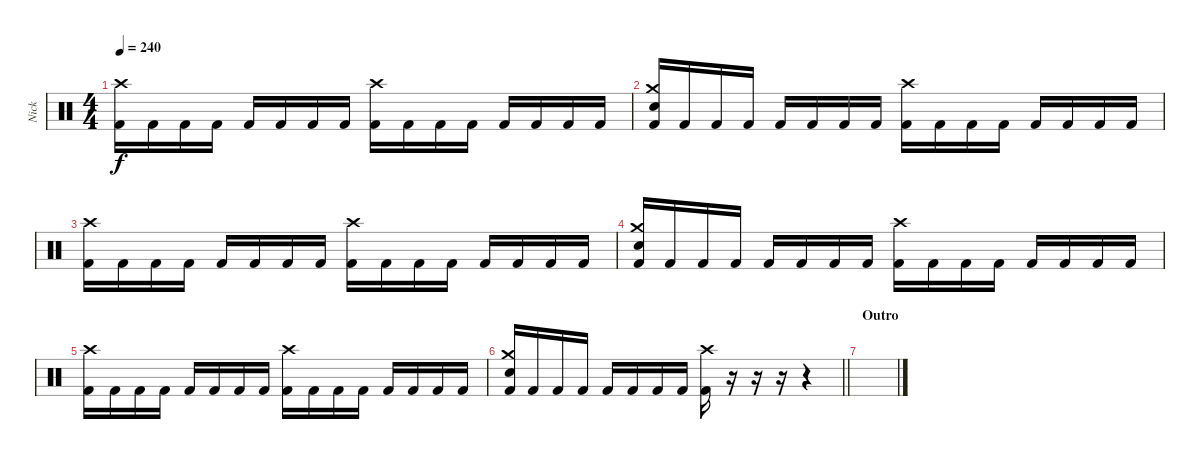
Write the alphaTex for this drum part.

\track ("Nick" "Nick") {instrument percussion}
\staff {score}
\articulation defaults
\ts (4 4)
\tempo 240
\clef neutral
\ks c
("Crash high (hit)" "Kick (hit) 2").16{dy f} "Kick (hit) 2".16 "Kick (hit) 2".16 "Kick (hit) 2".16 "Kick (hit) 2".16 "Kick (hit) 2".16 "Kick (hit) 2".16 "Kick (hit) 2".16 ("Crash high (hit)" "Kick (hit) 2").16 "Kick (hit) 2".16 "Kick (hit) 2".16 "Kick (hit) 2".16 "Kick (hit) 2".16 "Kick (hit) 2".16 "Kick (hit) 2".16 "Kick (hit) 2".16 |
("Crash medium (hit)" "Electric Snare (hit)" "Kick (hit) 2").16 "Kick (hit) 2".16 "Kick (hit) 2".16 "Kick (hit) 2".16 "Kick (hit) 2".16 "Kick (hit) 2".16 "Kick (hit) 2".16 "Kick (hit) 2".16 ("Crash high (hit)" "Kick (hit) 2").16 "Kick (hit) 2".16 "Kick (hit) 2".16 "Kick (hit) 2".16 "Kick (hit) 2".16 "Kick (hit) 2".16 "Kick (hit) 2".16 "Kick (hit) 2".16 |
("Crash high (hit)" "Kick (hit) 2").16 "Kick (hit) 2".16 "Kick (hit) 2".16 "Kick (hit) 2".16 "Kick (hit) 2".16 "Kick (hit) 2".16 "Kick (hit) 2".16 "Kick (hit) 2".16 ("Crash high (hit)" "Kick (hit) 2").16 "Kick (hit) 2".16 "Kick (hit) 2".16 "Kick (hit) 2".16 "Kick (hit) 2".16 "Kick (hit) 2".16 "Kick (hit) 2".16 "Kick (hit) 2".16 |
("Crash medium (hit)" "Electric Snare (hit)" "Kick (hit) 2").16 "Kick (hit) 2".16 "Kick (hit) 2".16 "Kick (hit) 2".16 "Kick (hit) 2".16 "Kick (hit) 2".16 "Kick (hit) 2".16 "Kick (hit) 2".16 ("Crash high (hit)" "Kick (hit) 2").16 "Kick (hit) 2".16 "Kick (hit) 2".16 "Kick (hit) 2".16 "Kick (hit) 2".16 "Kick (hit) 2".16 "Kick (hit) 2".16 "Kick (hit) 2".16 |
("Crash high (hit)" "Kick (hit) 2").16 "Kick (hit) 2".16 "Kick (hit) 2".16 "Kick (hit) 2".16 "Kick (hit) 2".16 "Kick (hit) 2".16 "Kick (hit) 2".16 "Kick (hit) 2".16 ("Crash high (hit)" "Kick (hit) 2").16 "Kick (hit) 2".16 "Kick (hit) 2".16 "Kick (hit) 2".16 "Kick (hit) 2".16 "Kick (hit) 2".16 "Kick (hit) 2".16 "Kick (hit) 2".16 |
\barLineRight lightlight
("Crash medium (hit)" "Electric Snare (hit)" "Kick (hit) 2").16 "Kick (hit) 2".16 "Kick (hit) 2".16 "Kick (hit) 2".16 "Kick (hit) 2".16 "Kick (hit) 2".16 "Kick (hit) 2".16 "Kick (hit) 2".16 ("Crash high (hit)" "Kick (hit) 2").16 r.16 r.16 r.16 r.4 |
\section ("" "Outro")
